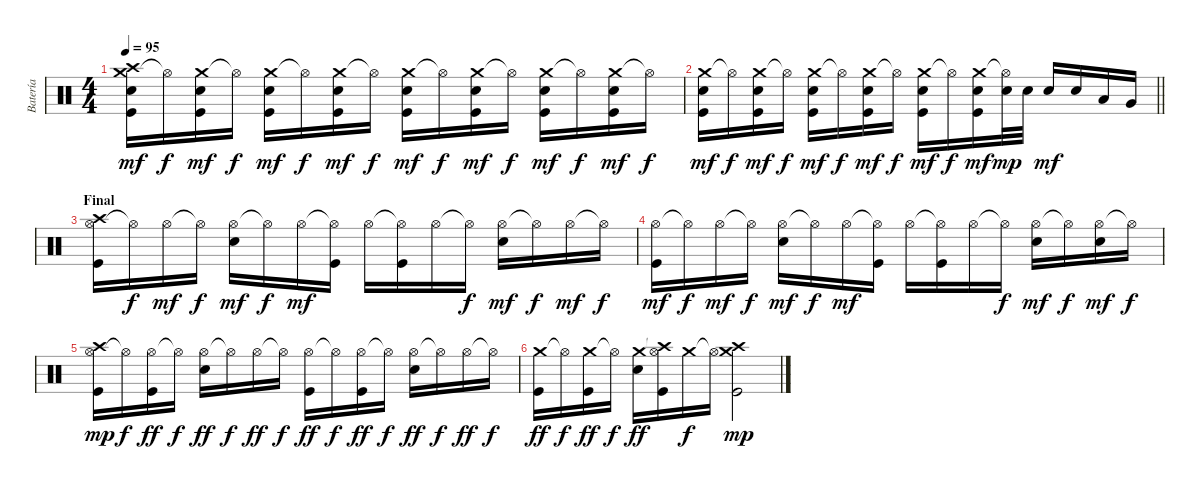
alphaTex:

\track ("Batería" "Batería") {instrument percussion}
\staff {score}
\articulation defaults
\ts (4 4)
\tempo 95
\clef neutral
\ks c
("Crash medium (hit)" "Electric Snare (hit)" "Kick (hit)" "Crash high (hit)").16{dy mf} "Hi-Hat (open)"{t}.16{dy f} ("Crash medium (hit)" "Electric Snare (hit)" "Kick (hit)").16{dy mf} "Hi-Hat (open)"{t}.16{dy f} ("Crash medium (hit)" "Electric Snare (hit)" "Kick (hit)").16{dy mf} "Hi-Hat (open)"{t}.16{dy f} ("Crash medium (hit)" "Electric Snare (hit)" "Kick (hit)").16{dy mf} "Hi-Hat (open)"{t}.16{dy f} ("Crash medium (hit)" "Electric Snare (hit)" "Kick (hit)").16{dy mf} "Hi-Hat (open)"{t}.16{dy f} ("Crash medium (hit)" "Electric Snare (hit)" "Kick (hit)").16{dy mf} "Hi-Hat (open)"{t}.16{dy f} ("Crash medium (hit)" "Electric Snare (hit)" "Kick (hit)").16{dy mf} "Hi-Hat (open)"{t}.16{dy f} ("Crash medium (hit)" "Electric Snare (hit)" "Kick (hit)").16{dy mf} "Hi-Hat (open)"{t}.16{dy f} |
\barLineRight lightlight
("Crash medium (hit)" "Electric Snare (hit)" "Kick (hit)").16{dy mf} "Hi-Hat (open)"{t}.16{dy f} ("Crash medium (hit)" "Electric Snare (hit)" "Kick (hit)").16{dy mf} "Hi-Hat (open)"{t}.16{dy f} ("Crash medium (hit)" "Electric Snare (hit)" "Kick (hit)").16{dy mf} "Hi-Hat (open)"{t}.16{dy f} ("Crash medium (hit)" "Electric Snare (hit)" "Kick (hit)").16{dy mf} "Hi-Hat (open)"{t}.16{dy f} ("Crash medium (hit)" "Electric Snare (hit)" "Kick (hit)").16{dy mf} "Hi-Hat (open)"{t}.16{dy f} ("Crash medium (hit)" "Electric Snare (hit)" "Kick (hit)").16{dy mf} ("Hi-Hat (open)"{t} "Electric Snare (hit)").32{dy mp} "Electric Snare (hit)".32 "Electric Snare (hit)".16{dy mf} "Electric Snare (hit)".16 "Low Tom (hit)".16 "Very Low Tom (hit)".16 |
\section ("" "Final")
("Hi-Hat (open)" "Kick (hit)" "Crash high (hit)").16 "Hi-Hat (open)"{t}.16{dy f} "Hi-Hat (open)".16{dy mf} "Hi-Hat (open)"{t}.16{dy f} ("Hi-Hat (open)" "Electric Snare (hit)").16{dy mf} "Hi-Hat (open)"{t}.16{dy f} "Hi-Hat (open)".16{dy mf} ("Hi-Hat (open)"{t} "Kick (hit)").16 "Hi-Hat (open)".16 ("Hi-Hat (open)"{t} "Kick (hit)").16 "Hi-Hat (open)".16 "Hi-Hat (open)"{t}.16{dy f} ("Hi-Hat (open)" "Electric Snare (hit)").16{dy mf} "Hi-Hat (open)"{t}.16{dy f} "Hi-Hat (open)".16{dy mf} "Hi-Hat (open)"{t}.16{dy f} |
("Hi-Hat (open)" "Kick (hit)").16{dy mf} "Hi-Hat (open)"{t}.16{dy f} "Hi-Hat (open)".16{dy mf} "Hi-Hat (open)"{t}.16{dy f} ("Hi-Hat (open)" "Electric Snare (hit)").16{dy mf} "Hi-Hat (open)"{t}.16{dy f} "Hi-Hat (open)".16{dy mf} ("Hi-Hat (open)"{t} "Kick (hit)").16 "Hi-Hat (open)".16 ("Hi-Hat (open)"{t} "Kick (hit)").16 "Hi-Hat (open)".16 "Hi-Hat (open)"{t}.16{dy f} ("Hi-Hat (open)" "Electric Snare (hit)").16{dy mf} "Hi-Hat (open)"{t}.16{dy f} ("Hi-Hat (open)" "Electric Snare (hit)").16{dy mf} "Hi-Hat (open)"{t}.16{dy f} |
("Hi-Hat (open)" "Kick (hit)" "Crash high (hit)").16{dy mp} "Hi-Hat (open)"{t}.16{dy f} ("Hi-Hat (open)" "Kick (hit)").16{dy ff} "Hi-Hat (open)"{t}.16{dy f} ("Hi-Hat (open)" "Electric Snare (hit)").16{dy ff} "Hi-Hat (open)"{t}.16{dy f} "Hi-Hat (open)".16{dy ff} "Hi-Hat (open)"{t}.16{dy f} ("Hi-Hat (open)" "Kick (hit)").16{dy ff} "Hi-Hat (open)"{t}.16{dy f} ("Hi-Hat (open)" "Kick (hit)").16{dy ff} "Hi-Hat (open)"{t}.16{dy f} ("Hi-Hat (open)" "Electric Snare (hit)").16{dy ff} "Hi-Hat (open)"{t}.16{dy f} "Hi-Hat (open)".16{dy ff} "Hi-Hat (open)"{t}.16{dy f} |
("Crash medium (hit)" "Kick (hit)").16{dy ff} "Hi-Hat (open)"{t}.16{dy f} ("Crash medium (hit)" "Kick (hit)").16{dy ff} "Hi-Hat (open)"{t}.16{dy f} ("Crash medium (hit)" "Electric Snare (hit)").16{dy ff} ("Hi-Hat (open)"{t} "Kick (hit)" "Crash high (hit)").16 "Crash medium (hit)".16{dy f} "Hi-Hat (open)"{t}.16 ("Crash medium (hit)" "Kick (hit)" "Crash high (hit)").2{dy mp}
